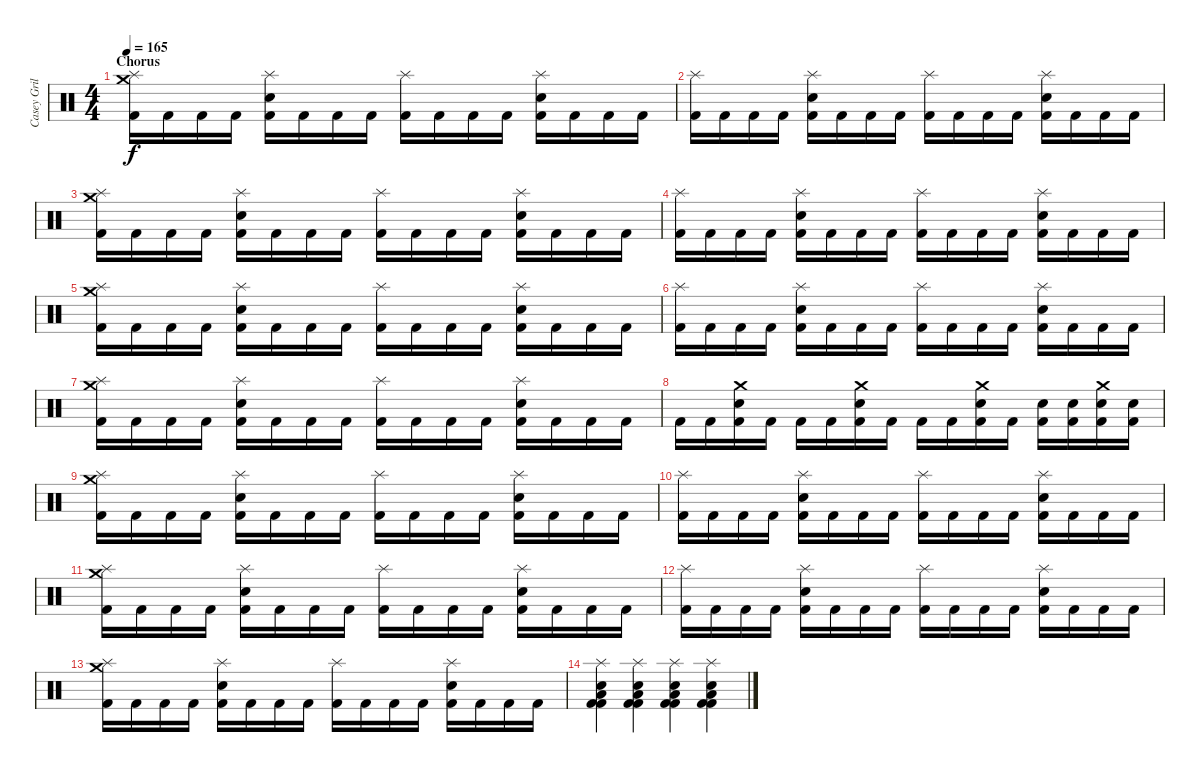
\track ("Casey Grillo" "Casey Gril") {instrument percussion}
\staff {score}
\articulation defaults
\ts (4 4)
\section ("" "Chorus")
\tempo 165
\clef neutral
\ks c
("Splash (hit)" "Crash medium (hit)" "Kick (hit) 2").16{dy f} "Kick (hit) 2".16 "Kick (hit) 2".16 "Kick (hit) 2".16 ("Electric Snare (hit)" "Splash (hit)" "Kick (hit) 2").16 "Kick (hit) 2".16 "Kick (hit) 2".16 "Kick (hit) 2".16 ("Splash (hit)" "Kick (hit) 2").16 "Kick (hit) 2".16 "Kick (hit) 2".16 "Kick (hit) 2".16 ("Electric Snare (hit)" "Splash (hit)" "Kick (hit) 2").16 "Kick (hit) 2".16 "Kick (hit) 2".16 "Kick (hit) 2".16 |
("Splash (hit)" "Kick (hit) 2").16 "Kick (hit) 2".16 "Kick (hit) 2".16 "Kick (hit) 2".16 ("Electric Snare (hit)" "Splash (hit)" "Kick (hit) 2").16 "Kick (hit) 2".16 "Kick (hit) 2".16 "Kick (hit) 2".16 ("Splash (hit)" "Kick (hit) 2").16 "Kick (hit) 2".16 "Kick (hit) 2".16 "Kick (hit) 2".16 ("Electric Snare (hit)" "Splash (hit)" "Kick (hit) 2").16 "Kick (hit) 2".16 "Kick (hit) 2".16 "Kick (hit) 2".16 |
("Splash (hit)" "Crash medium (hit)" "Kick (hit) 2").16 "Kick (hit) 2".16 "Kick (hit) 2".16 "Kick (hit) 2".16 ("Electric Snare (hit)" "Splash (hit)" "Kick (hit) 2").16 "Kick (hit) 2".16 "Kick (hit) 2".16 "Kick (hit) 2".16 ("Splash (hit)" "Kick (hit) 2").16 "Kick (hit) 2".16 "Kick (hit) 2".16 "Kick (hit) 2".16 ("Electric Snare (hit)" "Splash (hit)" "Kick (hit) 2").16 "Kick (hit) 2".16 "Kick (hit) 2".16 "Kick (hit) 2".16 |
("Splash (hit)" "Kick (hit) 2").16 "Kick (hit) 2".16 "Kick (hit) 2".16 "Kick (hit) 2".16 ("Electric Snare (hit)" "Splash (hit)" "Kick (hit) 2").16 "Kick (hit) 2".16 "Kick (hit) 2".16 "Kick (hit) 2".16 ("Splash (hit)" "Kick (hit) 2").16 "Kick (hit) 2".16 "Kick (hit) 2".16 "Kick (hit) 2".16 ("Electric Snare (hit)" "Splash (hit)" "Kick (hit) 2").16 "Kick (hit) 2".16 "Kick (hit) 2".16 "Kick (hit) 2".16 |
("Splash (hit)" "Crash medium (hit)" "Kick (hit) 2").16 "Kick (hit) 2".16 "Kick (hit) 2".16 "Kick (hit) 2".16 ("Electric Snare (hit)" "Splash (hit)" "Kick (hit) 2").16 "Kick (hit) 2".16 "Kick (hit) 2".16 "Kick (hit) 2".16 ("Splash (hit)" "Kick (hit) 2").16 "Kick (hit) 2".16 "Kick (hit) 2".16 "Kick (hit) 2".16 ("Electric Snare (hit)" "Splash (hit)" "Kick (hit) 2").16 "Kick (hit) 2".16 "Kick (hit) 2".16 "Kick (hit) 2".16 |
("Splash (hit)" "Kick (hit) 2").16 "Kick (hit) 2".16 "Kick (hit) 2".16 "Kick (hit) 2".16 ("Electric Snare (hit)" "Splash (hit)" "Kick (hit) 2").16 "Kick (hit) 2".16 "Kick (hit) 2".16 "Kick (hit) 2".16 ("Splash (hit)" "Kick (hit) 2").16 "Kick (hit) 2".16 "Kick (hit) 2".16 "Kick (hit) 2".16 ("Electric Snare (hit)" "Splash (hit)" "Kick (hit) 2").16 "Kick (hit) 2".16 "Kick (hit) 2".16 "Kick (hit) 2".16 |
("Splash (hit)" "Crash medium (hit)" "Kick (hit) 2").16 "Kick (hit) 2".16 "Kick (hit) 2".16 "Kick (hit) 2".16 ("Electric Snare (hit)" "Splash (hit)" "Kick (hit) 2").16 "Kick (hit) 2".16 "Kick (hit) 2".16 "Kick (hit) 2".16 ("Splash (hit)" "Kick (hit) 2").16 "Kick (hit) 2".16 "Kick (hit) 2".16 "Kick (hit) 2".16 ("Electric Snare (hit)" "Splash (hit)" "Kick (hit) 2").16 "Kick (hit) 2".16 "Kick (hit) 2".16 "Kick (hit) 2".16 |
"Kick (hit) 2".16 "Kick (hit) 2".16 ("Electric Snare (hit)" "Crash medium (hit)" "Kick (hit) 2").16 "Kick (hit) 2".16 "Kick (hit) 2".16 "Kick (hit) 2".16 ("Electric Snare (hit)" "Crash medium (hit)" "Kick (hit) 2").16 "Kick (hit) 2".16 "Kick (hit) 2".16 "Kick (hit) 2".16 ("Electric Snare (hit)" "Crash medium (hit)" "Kick (hit) 2").16 "Kick (hit) 2".16 ("Electric Snare (hit)" "Kick (hit) 2").16 ("Electric Snare (hit)" "Kick (hit) 2").16 ("Electric Snare (hit)" "Crash medium (hit)" "Kick (hit) 2").16 ("Electric Snare (hit)" "Kick (hit) 2").16 |
("Splash (hit)" "Crash medium (hit)" "Kick (hit) 2").16 "Kick (hit) 2".16 "Kick (hit) 2".16 "Kick (hit) 2".16 ("Electric Snare (hit)" "Splash (hit)" "Kick (hit) 2").16 "Kick (hit) 2".16 "Kick (hit) 2".16 "Kick (hit) 2".16 ("Splash (hit)" "Kick (hit) 2").16 "Kick (hit) 2".16 "Kick (hit) 2".16 "Kick (hit) 2".16 ("Electric Snare (hit)" "Splash (hit)" "Kick (hit) 2").16 "Kick (hit) 2".16 "Kick (hit) 2".16 "Kick (hit) 2".16 |
("Splash (hit)" "Kick (hit) 2").16 "Kick (hit) 2".16 "Kick (hit) 2".16 "Kick (hit) 2".16 ("Electric Snare (hit)" "Splash (hit)" "Kick (hit) 2").16 "Kick (hit) 2".16 "Kick (hit) 2".16 "Kick (hit) 2".16 ("Splash (hit)" "Kick (hit) 2").16 "Kick (hit) 2".16 "Kick (hit) 2".16 "Kick (hit) 2".16 ("Electric Snare (hit)" "Splash (hit)" "Kick (hit) 2").16 "Kick (hit) 2".16 "Kick (hit) 2".16 "Kick (hit) 2".16 |
("Splash (hit)" "Crash medium (hit)" "Kick (hit) 2").16 "Kick (hit) 2".16 "Kick (hit) 2".16 "Kick (hit) 2".16 ("Electric Snare (hit)" "Splash (hit)" "Kick (hit) 2").16 "Kick (hit) 2".16 "Kick (hit) 2".16 "Kick (hit) 2".16 ("Splash (hit)" "Kick (hit) 2").16 "Kick (hit) 2".16 "Kick (hit) 2".16 "Kick (hit) 2".16 ("Electric Snare (hit)" "Splash (hit)" "Kick (hit) 2").16 "Kick (hit) 2".16 "Kick (hit) 2".16 "Kick (hit) 2".16 |
("Splash (hit)" "Kick (hit) 2").16 "Kick (hit) 2".16 "Kick (hit) 2".16 "Kick (hit) 2".16 ("Electric Snare (hit)" "Splash (hit)" "Kick (hit) 2").16 "Kick (hit) 2".16 "Kick (hit) 2".16 "Kick (hit) 2".16 ("Splash (hit)" "Kick (hit) 2").16 "Kick (hit) 2".16 "Kick (hit) 2".16 "Kick (hit) 2".16 ("Electric Snare (hit)" "Splash (hit)" "Kick (hit) 2").16 "Kick (hit) 2".16 "Kick (hit) 2".16 "Kick (hit) 2".16 |
("Splash (hit)" "Crash medium (hit)" "Kick (hit) 2").16 "Kick (hit) 2".16 "Kick (hit) 2".16 "Kick (hit) 2".16 ("Electric Snare (hit)" "Splash (hit)" "Kick (hit) 2").16 "Kick (hit) 2".16 "Kick (hit) 2".16 "Kick (hit) 2".16 ("Splash (hit)" "Kick (hit) 2").16 "Kick (hit) 2".16 "Kick (hit) 2".16 "Kick (hit) 2".16 ("Electric Snare (hit)" "Splash (hit)" "Kick (hit) 2").16 "Kick (hit) 2".16 "Kick (hit) 2".16 "Kick (hit) 2".16 |
("Snare (hit) 2" "Splash (hit)" "Low Tom (hit)" "Kick (hit) 2" "Kick (hit) 2").4 ("Snare (hit) 2" "Splash (hit)" "Low Tom (hit)" "Kick (hit) 2" "Kick (hit) 2").4 ("Snare (hit) 2" "Splash (hit)" "Low Tom (hit)" "Kick (hit) 2" "Kick (hit) 2").4 ("Snare (hit) 2" "Splash (hit)" "Low Tom (hit)" "Kick (hit) 2" "Kick (hit) 2").4
